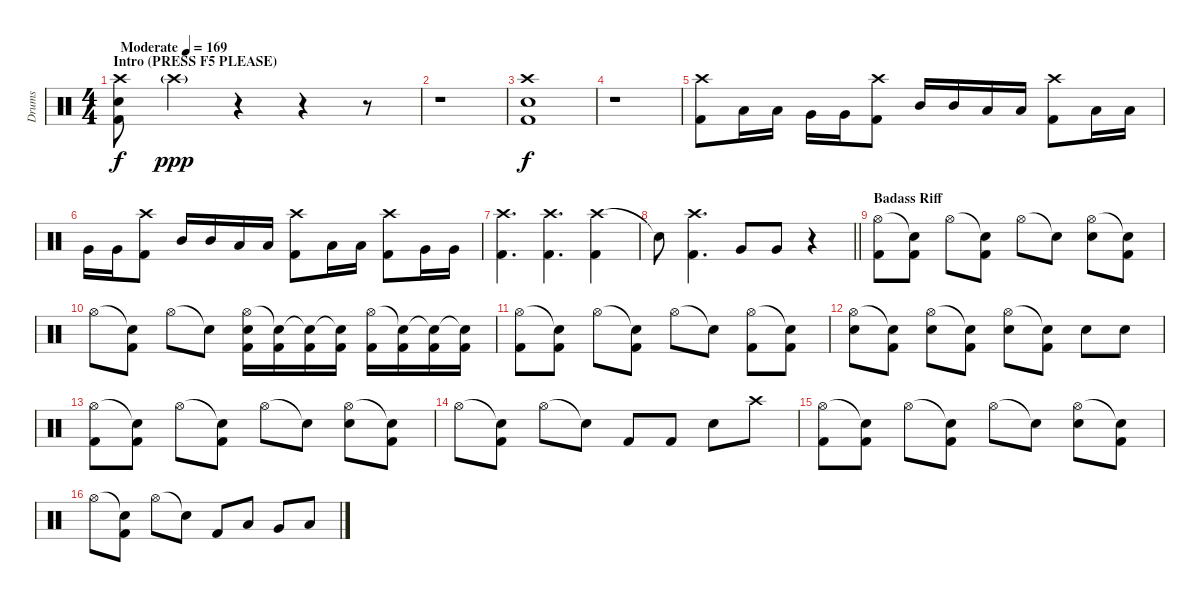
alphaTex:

\track ("Drums" "Drums") {instrument percussion}
\staff {score}
\articulation defaults
\ts (4 4)
\section ("" "Intro (PRESS F5 PLEASE)")
\tempo (169 "Moderate")
\clef neutral
\ks c
("Crash high (hit)" "Electric Snare (hit)" "Kick (hit) 2").8{dy f} "Crash high (hit)"{g}.4{dy ppp} r.4 r.4 r.8 |
r.1 |
("Crash high (hit)" "Electric Snare (hit)" "Kick (hit) 2").1{dy f} |
r.1 |
("Crash high (hit)" "Kick (hit) 2").8 "Low Tom (hit)".16 "Low Tom (hit)".16 "Very Low Tom (hit)".16 "Very Low Tom (hit)".16 ("Crash high (hit)" "Kick (hit) 2").8 "Mid Tom (hit)".16 "Mid Tom (hit)".16 "Low Tom (hit)".16 "Low Tom (hit)".16 ("Crash high (hit)" "Kick (hit) 2").8 "Low Tom (hit)".16 "Low Tom (hit)".16 |
"Very Low Tom (hit)".16 "Very Low Tom (hit)".16 ("Crash high (hit)" "Kick (hit) 2").8 "Mid Tom (hit)".16 "Mid Tom (hit)".16 "Low Tom (hit)".16 "Low Tom (hit)".16 ("Crash high (hit)" "Kick (hit) 2").8 "Low Tom (hit)".16 "Low Tom (hit)".16 ("Crash high (hit)" "Kick (hit) 2").8 "Very Low Tom (hit)".16 "Very Low Tom (hit)".16 |
("Crash high (hit)" "Kick (hit) 2").4{d} ("Crash high (hit)" "Kick (hit) 2").4{d} ("Crash high (hit)" "Kick (hit) 2").4 |
\barLineRight lightlight "Snare (hit)"{t}.8
("Crash high (hit)" "Kick (hit) 2").4{d} "Very Low Tom (hit)".8 "Very Low Tom (hit)".8 r.4 |
\section ("" "Badass Riff")
("Hi-Hat (open)" "Kick (hit) 2").8 ("Snare (hit)"{t} "Kick (hit) 2").8 "Hi-Hat (open)".8 ("Snare (hit)"{t} "Kick (hit) 2").8 "Hi-Hat (open)".8 "Snare (hit)"{t}.8 ("Hi-Hat (open)" "Electric Snare (hit)").8 ("Snare (hit)"{t} "Kick (hit) 2").8 |
"Hi-Hat (open)".8 ("Snare (hit)"{t} "Kick (hit) 2").8 "Hi-Hat (open)".8 "Snare (hit)"{t}.8 ("Hi-Hat (open)" "Electric Snare (hit)" "Kick (hit) 2").16 ("Snare (hit)"{t} "Kick (hit) 2").16 ("Snare (hit)"{t} "Kick (hit) 2").16 ("Snare (hit)"{t} "Kick (hit) 2").16 ("Hi-Hat (open)" "Kick (hit) 2").16 ("Snare (hit)"{t} "Kick (hit) 2").16 ("Snare (hit)"{t} "Kick (hit) 2").16 ("Snare (hit)"{t} "Kick (hit) 2").16 |
("Hi-Hat (open)" "Kick (hit) 2").8 ("Snare (hit)"{t} "Kick (hit) 2").8 "Hi-Hat (open)".8 ("Snare (hit)"{t} "Kick (hit) 2").8 "Hi-Hat (open)".8 "Snare (hit)"{t}.8 ("Hi-Hat (open)" "Kick (hit) 2").8 ("Snare (hit)"{t} "Kick (hit) 2").8 |
("Hi-Hat (open)" "Electric Snare (hit)").8 ("Snare (hit)"{t} "Kick (hit) 2").8 ("Hi-Hat (open)" "Electric Snare (hit)").8 ("Snare (hit)"{t} "Kick (hit) 2").8 ("Hi-Hat (open)" "Electric Snare (hit)").8 ("Snare (hit)"{t} "Kick (hit) 2").8 "Electric Snare (hit)".8 "Electric Snare (hit)".8 |
("Hi-Hat (open)" "Kick (hit) 2").8 ("Snare (hit)"{t} "Kick (hit) 2").8 "Hi-Hat (open)".8 ("Snare (hit)"{t} "Kick (hit) 2").8 "Hi-Hat (open)".8 "Snare (hit)"{t}.8 ("Hi-Hat (open)" "Electric Snare (hit)").8 ("Snare (hit)"{t} "Kick (hit) 2").8 |
"Hi-Hat (open)".8 ("Snare (hit)"{t} "Kick (hit) 2").8 "Hi-Hat (open)".8 "Snare (hit)"{t}.8 "Kick (hit) 2".8 "Kick (hit) 2".8 "Electric Snare (hit)".8 "Crash high (hit)".8 |
("Hi-Hat (open)" "Kick (hit) 2").8 ("Snare (hit)"{t} "Kick (hit) 2").8 "Hi-Hat (open)".8 ("Snare (hit)"{t} "Kick (hit) 2").8 "Hi-Hat (open)".8 "Snare (hit)"{t}.8 ("Hi-Hat (open)" "Electric Snare (hit)").8 ("Snare (hit)"{t} "Kick (hit) 2").8 |
"Hi-Hat (open)".8 ("Snare (hit)"{t} "Kick (hit) 2").8 "Hi-Hat (open)".8 "Snare (hit)"{t}.8 "Kick (hit) 2".8 "Low Tom (hit)".8 "Very Low Tom (hit)".8 "Low Floor Tom (hit)".8
